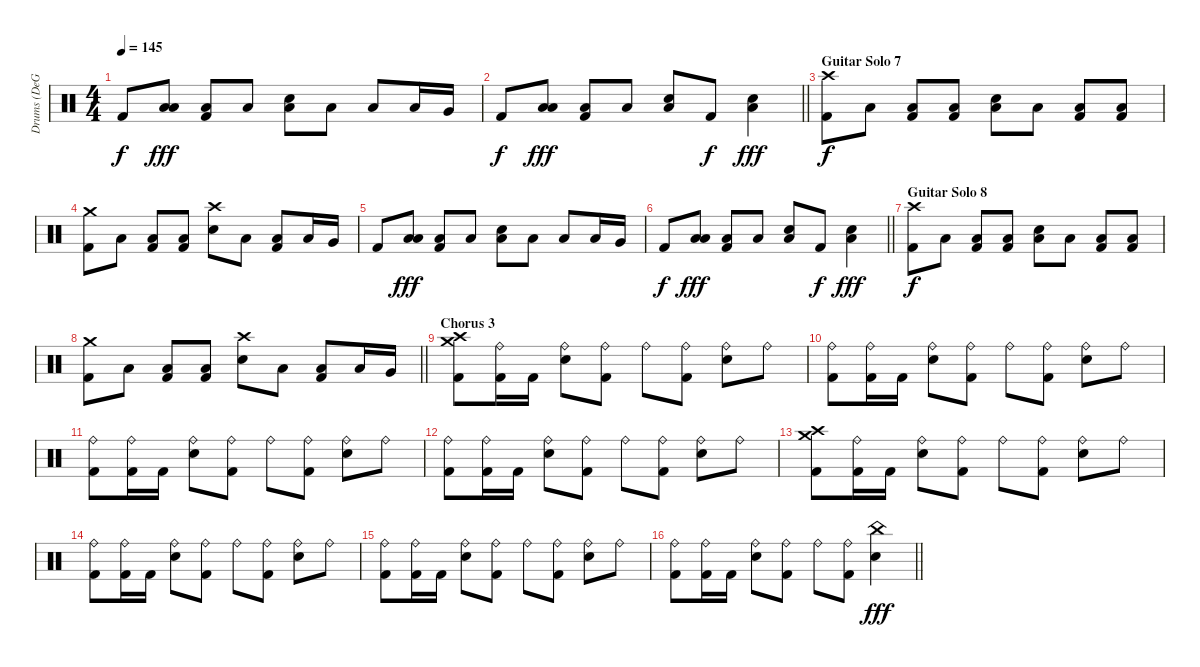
\track ("Drums (DeGrasso)" "Drums (DeG") {instrument percussion}
\staff {score}
\articulation defaults
\ts (4 4)
\tempo 145
\clef neutral
\ks c "Kick (hit) 2".8{dy f}
("Low Floor Tom (hit)" "Low Tom (hit)").8{dy fff} ("Low Floor Tom (hit)" "Kick (hit) 2").8 "Low Floor Tom (hit)".8 ("Low Floor Tom (hit)" "Snare (hit) 2").8 "Low Floor Tom (hit)".8 "Low Floor Tom (hit)".8 "Low Tom (hit)".16 "Very Low Tom (hit)".16 |
\barLineRight lightlight "Kick (hit) 2".8{dy f}
("Low Tom (hit)" "Low Floor Tom (hit)").8{dy fff} ("Low Floor Tom (hit)" "Kick (hit) 2").8 "Low Floor Tom (hit)".8 ("Low Floor Tom (hit)" "Snare (hit) 2").8 "Kick (hit) 2".8{dy f} ("Low Floor Tom (hit)" "Snare (hit) 2").4{dy fff} |
\section ("" "Guitar Solo 7")
("Crash high (hit)" "Kick (hit) 2").8{dy f} "Low Floor Tom (hit)".8 ("Low Floor Tom (hit)" "Kick (hit) 2").8 ("Low Floor Tom (hit)" "Kick (hit) 2").8 ("Low Floor Tom (hit)" "Snare (hit) 2").8 "Low Floor Tom (hit)".8 ("Low Floor Tom (hit)" "Kick (hit) 2").8 ("Low Floor Tom (hit)" "Kick (hit) 2").8 |
("Crash medium (hit)" "Kick (hit) 2").8 "Low Floor Tom (hit)".8 ("Low Floor Tom (hit)" "Kick (hit) 2").8 ("Low Floor Tom (hit)" "Kick (hit) 2").8 ("Crash high (hit)" "Snare (hit) 2").8 "Low Floor Tom (hit)".8 ("Low Floor Tom (hit)" "Kick (hit) 2").8 "Low Tom (hit)".16 "Very Low Tom (hit)".16 |
"Kick (hit) 2".8 ("Low Floor Tom (hit)" "Low Tom (hit)").8{dy fff} ("Low Floor Tom (hit)" "Kick (hit) 2").8 "Low Floor Tom (hit)".8 ("Low Floor Tom (hit)" "Snare (hit) 2").8 "Low Floor Tom (hit)".8 "Low Floor Tom (hit)".8 "Low Tom (hit)".16 "Very Low Tom (hit)".16 |
\barLineRight lightlight "Kick (hit) 2".8{dy f}
("Low Tom (hit)" "Low Floor Tom (hit)").8{dy fff} ("Low Floor Tom (hit)" "Kick (hit) 2").8 "Low Floor Tom (hit)".8 ("Low Floor Tom (hit)" "Snare (hit) 2").8 "Kick (hit) 2".8{dy f} ("Low Floor Tom (hit)" "Snare (hit) 2").4{dy fff} |
\section ("" "Guitar Solo 8")
("Crash high (hit)" "Kick (hit) 2").8{dy f} "Low Floor Tom (hit)".8 ("Low Floor Tom (hit)" "Kick (hit) 2").8 ("Low Floor Tom (hit)" "Kick (hit) 2").8 ("Low Floor Tom (hit)" "Snare (hit) 2").8 "Low Floor Tom (hit)".8 ("Low Floor Tom (hit)" "Kick (hit) 2").8 ("Low Floor Tom (hit)" "Kick (hit) 2").8 |
\barLineRight lightlight
("Crash medium (hit)" "Kick (hit) 2").8 "Low Floor Tom (hit)".8 ("Low Floor Tom (hit)" "Kick (hit) 2").8 ("Low Floor Tom (hit)" "Kick (hit) 2").8 ("Crash high (hit)" "Snare (hit) 2").8 "Low Floor Tom (hit)".8 ("Low Floor Tom (hit)" "Kick (hit) 2").8 "Low Tom (hit)".16 "Very Low Tom (hit)".16 |
\section ("" "Chorus 3")
("Crash medium (hit)" "Crash high (hit)" "Kick (hit) 2").8 ("Ride (bell)" "Kick (hit) 2").16 "Kick (hit) 2".16 ("Ride (bell)" "Snare (hit) 2").8 ("Ride (bell)" "Kick (hit) 2").8 "Ride (bell)".8 ("Ride (bell)" "Kick (hit) 2").8 ("Ride (bell)" "Snare (hit) 2").8 "Ride (bell)".8 |
("Ride (bell)" "Kick (hit) 2").8 ("Ride (bell)" "Kick (hit) 2").16 "Kick (hit) 2".16 ("Ride (bell)" "Snare (hit) 2").8 ("Ride (bell)" "Kick (hit) 2").8 "Ride (bell)".8 ("Ride (bell)" "Kick (hit) 2").8 ("Ride (bell)" "Snare (hit) 2").8 "Ride (bell)".8 |
("Ride (bell)" "Kick (hit) 2").8 ("Ride (bell)" "Kick (hit) 2").16 "Kick (hit) 2".16 ("Ride (bell)" "Snare (hit) 2").8 ("Ride (bell)" "Kick (hit) 2").8 "Ride (bell)".8 ("Ride (bell)" "Kick (hit) 2").8 ("Ride (bell)" "Snare (hit) 2").8 "Ride (bell)".8 |
("Ride (bell)" "Kick (hit) 2").8 ("Ride (bell)" "Kick (hit) 2").16 "Kick (hit) 2".16 ("Ride (bell)" "Snare (hit) 2").8 ("Ride (bell)" "Kick (hit) 2").8 "Ride (bell)".8 ("Ride (bell)" "Kick (hit) 2").8 ("Ride (bell)" "Snare (hit) 2").8 "Ride (bell)".8 |
("Crash medium (hit)" "Crash high (hit)" "Kick (hit) 2").8 ("Ride (bell)" "Kick (hit) 2").16 "Kick (hit) 2".16 ("Ride (bell)" "Snare (hit) 2").8 ("Ride (bell)" "Kick (hit) 2").8 "Ride (bell)".8 ("Ride (bell)" "Kick (hit) 2").8 ("Ride (bell)" "Snare (hit) 2").8 "Ride (bell)".8 |
("Ride (bell)" "Kick (hit) 2").8 ("Ride (bell)" "Kick (hit) 2").16 "Kick (hit) 2".16 ("Ride (bell)" "Snare (hit) 2").8 ("Ride (bell)" "Kick (hit) 2").8 "Ride (bell)".8 ("Ride (bell)" "Kick (hit) 2").8 ("Ride (bell)" "Snare (hit) 2").8 "Ride (bell)".8 |
("Ride (bell)" "Kick (hit) 2").8 ("Ride (bell)" "Kick (hit) 2").16 "Kick (hit) 2".16 ("Ride (bell)" "Snare (hit) 2").8 ("Ride (bell)" "Kick (hit) 2").8 "Ride (bell)".8 ("Ride (bell)" "Kick (hit) 2").8 ("Ride (bell)" "Snare (hit) 2").8 "Ride (bell)".8 |
\barLineRight lightlight
("Ride (bell)" "Kick (hit) 2").8 ("Ride (bell)" "Kick (hit) 2").16 "Kick (hit) 2".16 ("Ride (bell)" "Snare (hit) 2").8 ("Ride (bell)" "Kick (hit) 2").8 "Ride (bell)".8 ("Ride (bell)" "Kick (hit) 2").8 ("China (hit)" "Snare (hit) 2").4{dy fff}
